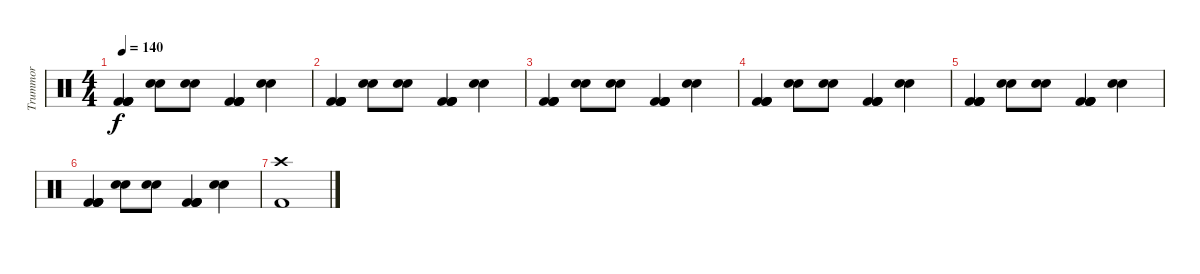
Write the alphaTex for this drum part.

\track ("Trummor" "Trummor") {instrument percussion}
\staff {score}
\articulation defaults
\ts (4 4)
\tempo 140
\clef neutral
\ks c
("Kick (hit) 2" "Kick (hit) 2" "Kick (hit) 2" "Kick (hit) 2").4{dy f} ("Hand Clap (hit)" "Electric Snare (hit)").8 ("Hand Clap (hit)" "Electric Snare (hit)").8 ("Kick (hit) 2" "Kick (hit) 2" "Kick (hit) 2" "Kick (hit) 2").4 ("Hand Clap (hit)" "Electric Snare (hit)").4 |
("Kick (hit) 2" "Kick (hit) 2" "Kick (hit) 2" "Kick (hit) 2").4 ("Hand Clap (hit)" "Electric Snare (hit)").8 ("Hand Clap (hit)" "Electric Snare (hit)").8 ("Kick (hit) 2" "Kick (hit) 2" "Kick (hit) 2" "Kick (hit) 2").4 ("Hand Clap (hit)" "Electric Snare (hit)").4 |
("Kick (hit) 2" "Kick (hit) 2" "Kick (hit) 2" "Kick (hit) 2").4 ("Hand Clap (hit)" "Electric Snare (hit)").8 ("Hand Clap (hit)" "Electric Snare (hit)").8 ("Kick (hit) 2" "Kick (hit) 2" "Kick (hit) 2" "Kick (hit) 2").4 ("Hand Clap (hit)" "Electric Snare (hit)").4 |
("Kick (hit) 2" "Kick (hit) 2" "Kick (hit) 2" "Kick (hit) 2").4 ("Hand Clap (hit)" "Electric Snare (hit)").8 ("Hand Clap (hit)" "Electric Snare (hit)").8 ("Kick (hit) 2" "Kick (hit) 2" "Kick (hit) 2" "Kick (hit) 2").4 ("Hand Clap (hit)" "Electric Snare (hit)").4 |
("Kick (hit) 2" "Kick (hit) 2" "Kick (hit) 2" "Kick (hit) 2").4 ("Hand Clap (hit)" "Electric Snare (hit)").8 ("Hand Clap (hit)" "Electric Snare (hit)").8 ("Kick (hit) 2" "Kick (hit) 2" "Kick (hit) 2" "Kick (hit) 2").4 ("Hand Clap (hit)" "Electric Snare (hit)").4 |
("Kick (hit) 2" "Kick (hit) 2" "Kick (hit) 2" "Kick (hit) 2").4 ("Hand Clap (hit)" "Electric Snare (hit)").8 ("Hand Clap (hit)" "Electric Snare (hit)").8 ("Kick (hit) 2" "Kick (hit) 2" "Kick (hit) 2" "Kick (hit) 2").4 ("Hand Clap (hit)" "Electric Snare (hit)").4 |
("Crash high (hit)" "Kick (hit) 2").1
